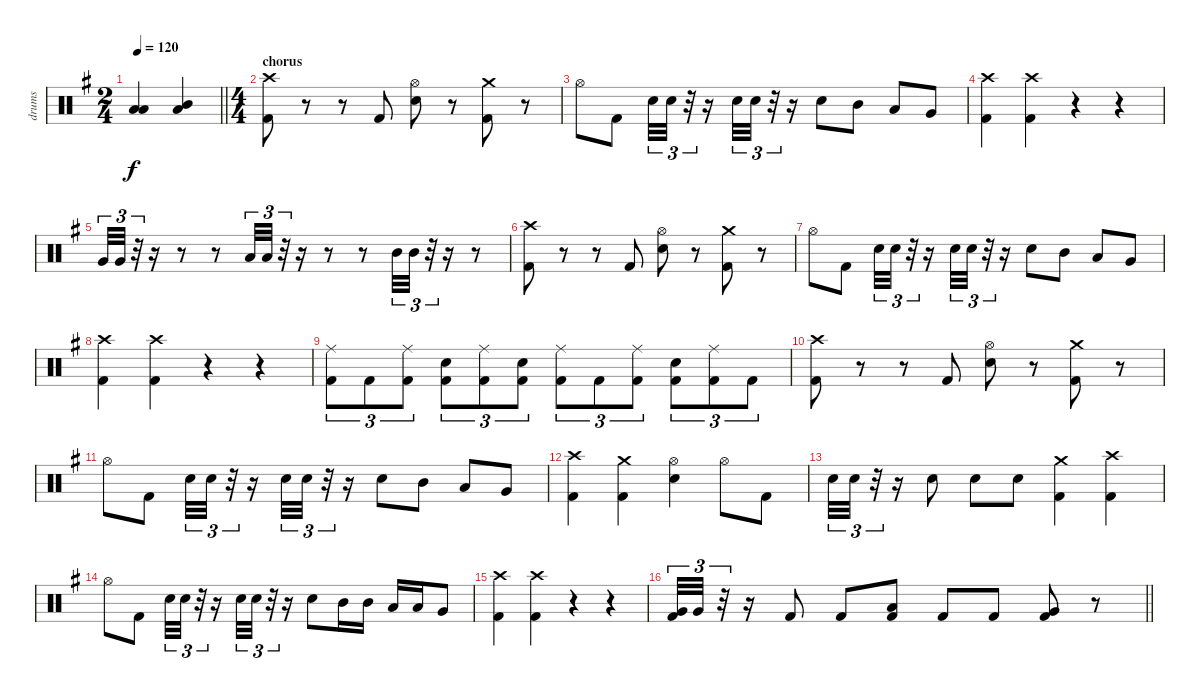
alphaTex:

\track ("drums" "drums") {instrument percussion}
\staff {score}
\articulation defaults
\ts (2 4)
\tempo 120
\clef neutral
\barLineRight lightlight
\ks g
("Low Tom (hit)" "Low Floor Tom (hit)").4{dy f} ("Mid Tom (hit)" "Low Floor Tom (hit)").4 |
\ts (4 4)
\section ("" "chorus")
("Crash high (hit)" "Kick (hit) 2").8 r.8 r.8 "Kick (hit) 2".8 ("Hi-Hat (open)" "Snare (hit) 2").8 r.8 ("Crash medium (hit)" "Kick (hit) 2").8 r.8 |
"Hi-Hat (open)".8 "Kick (hit) 2".8 "Snare (hit) 2".32{tu (3 2)} "Snare (hit) 2".32{tu (3 2)} r.32{tu (3 2)} r.16 "Snare (hit) 2".32{tu (3 2)} "Snare (hit) 2".32{tu (3 2)} r.32{tu (3 2)} r.16 "Snare (hit) 2".8 "Mid Tom (hit)".8 "Low Tom (hit)".8 "Very Low Tom (hit)".8 |
("Crash high (hit)" "Kick (hit) 2").4 ("Crash high (hit)" "Kick (hit) 2").4 r.4 r.4 |
"Very Low Tom (hit)".32{tu (3 2)} "Very Low Tom (hit)".32{tu (3 2)} r.32{tu (3 2)} r.16 r.8 r.8 "Low Tom (hit)".32{tu (3 2)} "Low Tom (hit)".32{tu (3 2)} r.32{tu (3 2)} r.16 r.8 r.8 "Mid Tom (hit)".32{tu (3 2)} "Mid Tom (hit)".32{tu (3 2)} r.32{tu (3 2)} r.16 r.8 |
("Crash high (hit)" "Kick (hit) 2").8 r.8 r.8 "Kick (hit) 2".8 ("Hi-Hat (open)" "Snare (hit) 2").8 r.8 ("Crash medium (hit)" "Kick (hit) 2").8 r.8 |
"Hi-Hat (open)".8 "Kick (hit) 2".8 "Snare (hit) 2".32{tu (3 2)} "Snare (hit) 2".32{tu (3 2)} r.32{tu (3 2)} r.16 "Snare (hit) 2".32{tu (3 2)} "Snare (hit) 2".32{tu (3 2)} r.32{tu (3 2)} r.16 "Snare (hit) 2".8 "Mid Tom (hit)".8 "Low Tom (hit)".8 "Very Low Tom (hit)".8 |
("Crash high (hit)" "Kick (hit) 2").4 ("Crash high (hit)" "Kick (hit) 2").4 r.4 r.4 |
("Ride (middle)" "Kick (hit) 2").8{tu (3 2)} "Kick (hit) 2".8{tu (3 2)} ("Ride (middle)" "Kick (hit) 2").8{tu (3 2)} ("Snare (hit) 2" "Kick (hit) 2").8{tu (3 2)} ("Ride (middle)" "Kick (hit) 2").8{tu (3 2)} ("Snare (hit) 2" "Kick (hit) 2").8{tu (3 2)} ("Ride (middle)" "Kick (hit) 2").8{tu (3 2)} "Kick (hit) 2".8{tu (3 2)} ("Ride (middle)" "Kick (hit) 2").8{tu (3 2)} ("Snare (hit) 2" "Kick (hit) 2").8{tu (3 2)} ("Ride (middle)" "Kick (hit) 2").8{tu (3 2)} "Kick (hit) 2".8{tu (3 2)} |
("Crash high (hit)" "Kick (hit) 2").8 r.8 r.8 "Kick (hit) 2".8 ("Hi-Hat (open)" "Snare (hit) 2").8 r.8 ("Crash medium (hit)" "Kick (hit) 2").8 r.8 |
"Hi-Hat (open)".8 "Kick (hit) 2".8 "Snare (hit) 2".32{tu (3 2)} "Snare (hit) 2".32{tu (3 2)} r.32{tu (3 2)} r.16 "Snare (hit) 2".32{tu (3 2)} "Snare (hit) 2".32{tu (3 2)} r.32{tu (3 2)} r.16 "Snare (hit) 2".8 "Mid Tom (hit)".8 "Low Tom (hit)".8 "Very Low Tom (hit)".8 |
("Crash high (hit)" "Kick (hit) 2").4 ("Crash medium (hit)" "Kick (hit) 2").4 ("Hi-Hat (open)" "Snare (hit) 2").4 "Hi-Hat (open)".8 "Kick (hit) 2".8 |
"Snare (hit) 2".32{tu (3 2)} "Snare (hit) 2".32{tu (3 2)} r.32{tu (3 2)} r.16 "Snare (hit) 2".8 "Snare (hit) 2".8 "Snare (hit) 2".8 ("Crash medium (hit)" "Kick (hit) 2").4 ("Crash high (hit)" "Kick (hit) 2").4 |
"Hi-Hat (open)".8 "Kick (hit) 2".8 "Snare (hit) 2".32{tu (3 2)} "Snare (hit) 2".32{tu (3 2)} r.32{tu (3 2)} r.16 "Snare (hit) 2".32{tu (3 2)} "Snare (hit) 2".32{tu (3 2)} r.32{tu (3 2)} r.16 "Snare (hit) 2".8 "Mid Tom (hit)".16 "Mid Tom (hit)".16 "Low Tom (hit)".16 "Low Tom (hit)".16 "Very Low Tom (hit)".8 |
("Crash high (hit)" "Kick (hit) 2").4 ("Crash high (hit)" "Kick (hit) 2").4 r.4 r.4 |
\barLineRight lightlight
("Very Low Tom (hit)" "Kick (hit) 2").32{tu (3 2)} "Very Low Tom (hit)".32{tu (3 2)} r.32{tu (3 2)} r.16 "Kick (hit) 2".8 "Kick (hit) 2".8 ("Low Tom (hit)" "Kick (hit) 2").8 "Kick (hit) 2".8 "Kick (hit) 2".8 ("Very Low Tom (hit)" "Kick (hit) 2").8 r.8
